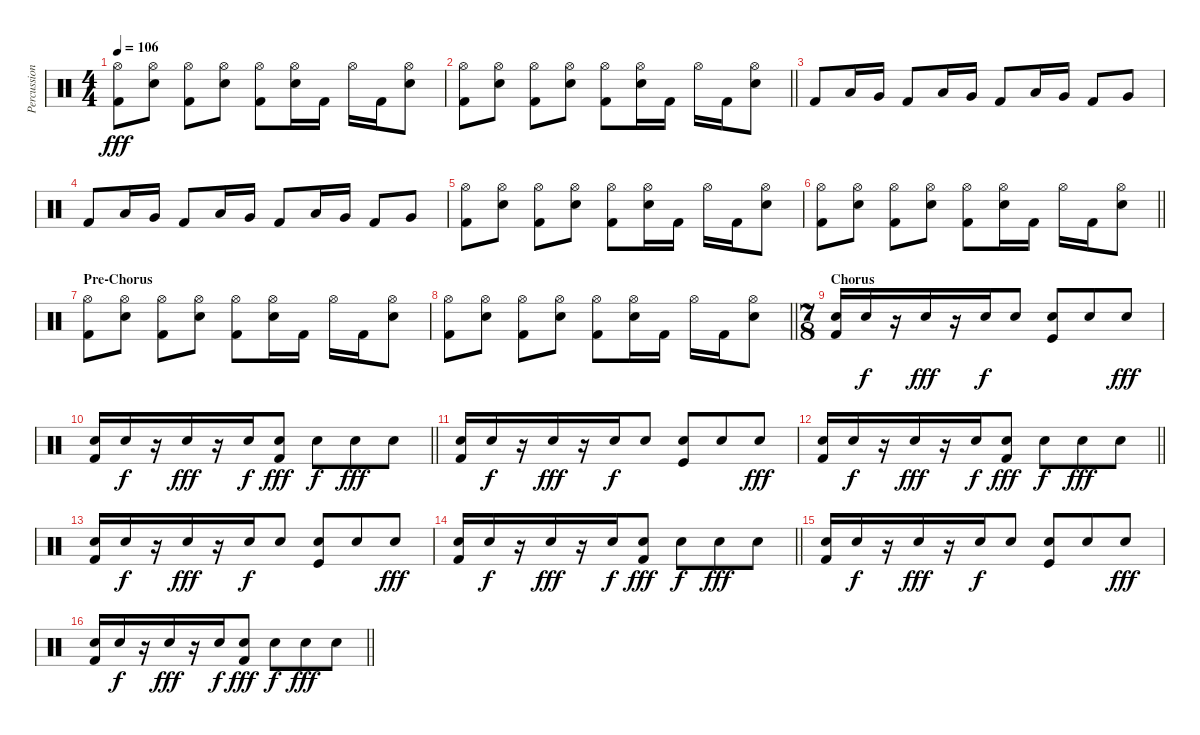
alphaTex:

\track ("Percussion 2" "Percussion") {instrument percussion}
\staff {score}
\articulation defaults
\ts (4 4)
\tempo 106
\clef neutral
\ks c
("Hi-Hat (open)" "Kick (hit) 2").8{dy fff} ("Hi-Hat (open)" "Electric Snare (hit)").8 ("Hi-Hat (open)" "Kick (hit) 2").8 ("Hi-Hat (open)" "Electric Snare (hit)").8 ("Hi-Hat (open)" "Kick (hit) 2").8 ("Hi-Hat (open)" "Electric Snare (hit)").16 "Kick (hit) 2".16 "Hi-Hat (open)".16 "Kick (hit) 2".16 ("Hi-Hat (open)" "Electric Snare (hit)").8 |
\barLineRight lightlight
("Hi-Hat (open)" "Kick (hit) 2").8 ("Hi-Hat (open)" "Electric Snare (hit)").8 ("Hi-Hat (open)" "Kick (hit) 2").8 ("Hi-Hat (open)" "Electric Snare (hit)").8 ("Hi-Hat (open)" "Kick (hit) 2").8 ("Hi-Hat (open)" "Electric Snare (hit)").16 "Kick (hit) 2".16 "Hi-Hat (open)".16 "Kick (hit) 2".16 ("Hi-Hat (open)" "Electric Snare (hit)").8 |
"Kick (hit) 2".8 "Low Floor Tom (hit)".16 "Very Low Tom (hit)".16 "Kick (hit) 2".8 "Low Floor Tom (hit)".16 "Very Low Tom (hit)".16 "Kick (hit) 2".8 "Low Floor Tom (hit)".16 "Very Low Tom (hit)".16 "Kick (hit) 2".8 "Very Low Tom (hit)".8 |
"Kick (hit) 2".8 "Low Floor Tom (hit)".16 "Very Low Tom (hit)".16 "Kick (hit) 2".8 "Low Floor Tom (hit)".16 "Very Low Tom (hit)".16 "Kick (hit) 2".8 "Low Floor Tom (hit)".16 "Very Low Tom (hit)".16 "Kick (hit) 2".8 "Very Low Tom (hit)".8 |
("Hi-Hat (open)" "Kick (hit) 2").8 ("Hi-Hat (open)" "Electric Snare (hit)").8 ("Hi-Hat (open)" "Kick (hit) 2").8 ("Hi-Hat (open)" "Electric Snare (hit)").8 ("Hi-Hat (open)" "Kick (hit) 2").8 ("Hi-Hat (open)" "Electric Snare (hit)").16 "Kick (hit) 2".16 "Hi-Hat (open)".16 "Kick (hit) 2".16 ("Hi-Hat (open)" "Electric Snare (hit)").8 |
\barLineRight lightlight
("Hi-Hat (open)" "Kick (hit) 2").8 ("Hi-Hat (open)" "Electric Snare (hit)").8 ("Hi-Hat (open)" "Kick (hit) 2").8 ("Hi-Hat (open)" "Electric Snare (hit)").8 ("Hi-Hat (open)" "Kick (hit) 2").8 ("Hi-Hat (open)" "Electric Snare (hit)").16 "Kick (hit) 2".16 "Hi-Hat (open)".16 "Kick (hit) 2".16 ("Hi-Hat (open)" "Electric Snare (hit)").8 |
\section ("" "Pre-Chorus")
("Hi-Hat (open)" "Kick (hit) 2").8 ("Hi-Hat (open)" "Electric Snare (hit)").8 ("Hi-Hat (open)" "Kick (hit) 2").8 ("Hi-Hat (open)" "Electric Snare (hit)").8 ("Hi-Hat (open)" "Kick (hit) 2").8 ("Hi-Hat (open)" "Electric Snare (hit)").16 "Kick (hit) 2".16 "Hi-Hat (open)".16 "Kick (hit) 2".16 ("Hi-Hat (open)" "Electric Snare (hit)").8 |
\barLineRight lightlight
("Hi-Hat (open)" "Kick (hit) 2").8 ("Hi-Hat (open)" "Electric Snare (hit)").8 ("Hi-Hat (open)" "Kick (hit) 2").8 ("Hi-Hat (open)" "Electric Snare (hit)").8 ("Hi-Hat (open)" "Kick (hit) 2").8 ("Hi-Hat (open)" "Electric Snare (hit)").16 "Kick (hit) 2".16 "Hi-Hat (open)".16 "Kick (hit) 2".16 ("Hi-Hat (open)" "Electric Snare (hit)").8 |
\ts (7 8)
\section ("" "Chorus")
("Snare (hit) 2" "Kick (hit) 2").16 "Snare (hit) 2".16{dy f} r.16 "Electric Snare (hit)".16{dy fff} r.16 "Snare (hit) 2".16{dy f} "Snare (hit) 2".8 ("Snare (hit) 2" "Kick (hit)").8 "Snare (hit) 2".8 "Electric Snare (hit)".8{dy fff} |
\barLineRight lightlight
("Snare (hit) 2" "Kick (hit) 2").16 "Snare (hit) 2".16{dy f} r.16 "Electric Snare (hit)".16{dy fff} r.16 "Snare (hit) 2".16{dy f} ("Snare (hit) 2" "Kick (hit) 2").8{dy fff} "Snare (hit) 2".8{dy f} "Electric Snare (hit)".8{dy fff} "Electric Snare (hit)".8 |
("Snare (hit) 2" "Kick (hit) 2").16 "Snare (hit) 2".16{dy f} r.16 "Electric Snare (hit)".16{dy fff} r.16 "Snare (hit) 2".16{dy f} "Snare (hit) 2".8 ("Snare (hit) 2" "Kick (hit)").8 "Snare (hit) 2".8 "Electric Snare (hit)".8{dy fff} |
\barLineRight lightlight
("Snare (hit) 2" "Kick (hit) 2").16 "Snare (hit) 2".16{dy f} r.16 "Electric Snare (hit)".16{dy fff} r.16 "Snare (hit) 2".16{dy f} ("Snare (hit) 2" "Kick (hit) 2").8{dy fff} "Snare (hit) 2".8{dy f} "Electric Snare (hit)".8{dy fff} "Electric Snare (hit)".8 |
("Snare (hit) 2" "Kick (hit) 2").16 "Snare (hit) 2".16{dy f} r.16 "Electric Snare (hit)".16{dy fff} r.16 "Snare (hit) 2".16{dy f} "Snare (hit) 2".8 ("Snare (hit) 2" "Kick (hit)").8 "Snare (hit) 2".8 "Electric Snare (hit)".8{dy fff} |
\barLineRight lightlight
("Snare (hit) 2" "Kick (hit) 2").16 "Snare (hit) 2".16{dy f} r.16 "Electric Snare (hit)".16{dy fff} r.16 "Snare (hit) 2".16{dy f} ("Snare (hit) 2" "Kick (hit) 2").8{dy fff} "Snare (hit) 2".8{dy f} "Electric Snare (hit)".8{dy fff} "Electric Snare (hit)".8 |
("Snare (hit) 2" "Kick (hit) 2").16 "Snare (hit) 2".16{dy f} r.16 "Electric Snare (hit)".16{dy fff} r.16 "Snare (hit) 2".16{dy f} "Snare (hit) 2".8 ("Snare (hit) 2" "Kick (hit)").8 "Snare (hit) 2".8 "Electric Snare (hit)".8{dy fff} |
\barLineRight lightlight
("Snare (hit) 2" "Kick (hit) 2").16 "Snare (hit) 2".16{dy f} r.16 "Electric Snare (hit)".16{dy fff} r.16 "Snare (hit) 2".16{dy f} ("Snare (hit) 2" "Kick (hit) 2").8{dy fff} "Snare (hit) 2".8{dy f} "Electric Snare (hit)".8{dy fff} "Electric Snare (hit)".8
